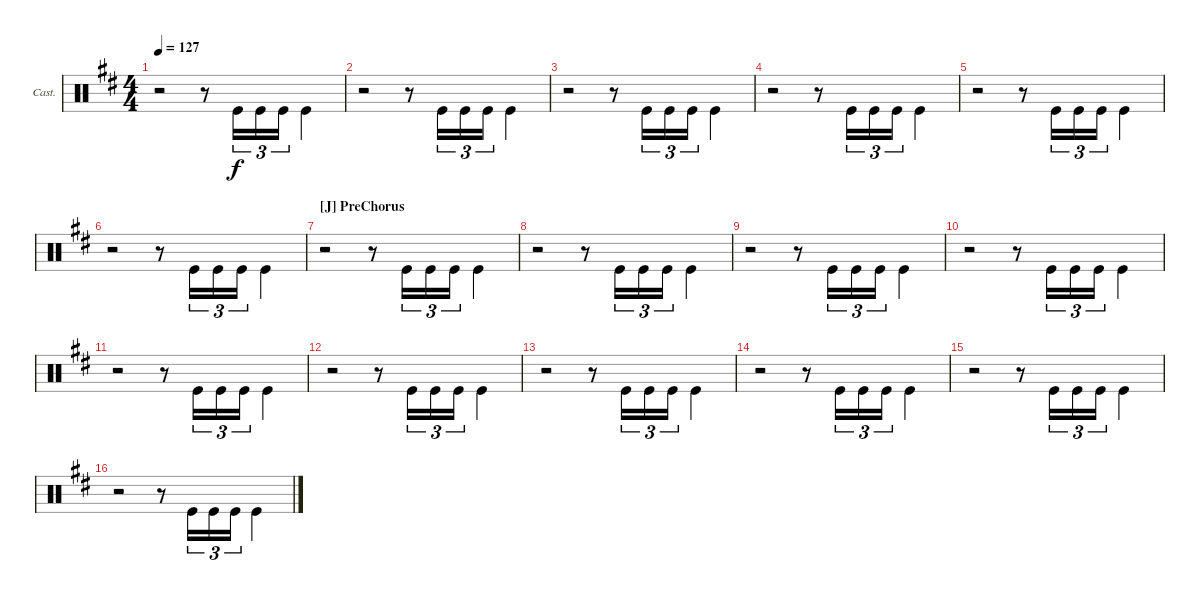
\bracketExtendMode groupsimilarinstruments
\firstSystemTrackNameOrientation horizontal
\otherSystemsTrackNameOrientation horizontal
\track ("Castanets" "Cast.") {instrument percussion}
\staff {score}
\articulation defaults
\ts (4 4)
\tempo 127
\clef neutral
\scale
0.5
\ks d
r.2{dy f beam invert} r.8{beam invert} "Kick (hit)".16{tu (3 2) beam invert} "Kick (hit)".16{tu (3 2)} "Kick (hit)".16{tu (3 2)} "Kick (hit)".4{beam invert} |
\scale
0.5 r.2{beam invert} r.8{beam invert} "Kick (hit)".16{tu (3 2) beam invert} "Kick (hit)".16{tu (3 2)} "Kick (hit)".16{tu (3 2)} "Kick (hit)".4{beam invert} |
\scale
0.5 r.2{beam invert} r.8{beam invert} "Kick (hit)".16{tu (3 2) beam invert} "Kick (hit)".16{tu (3 2)} "Kick (hit)".16{tu (3 2)} "Kick (hit)".4{beam invert} |
\scale
0.5 r.2{beam invert} r.8{beam invert} "Kick (hit)".16{tu (3 2) beam invert} "Kick (hit)".16{tu (3 2)} "Kick (hit)".16{tu (3 2)} "Kick (hit)".4{beam invert} |
\scale
0.5 r.2{beam invert} r.8{beam invert} "Kick (hit)".16{tu (3 2) beam invert} "Kick (hit)".16{tu (3 2)} "Kick (hit)".16{tu (3 2)} "Kick (hit)".4{beam invert} |
\scale
0.5 r.2{beam invert} r.8{beam invert} "Kick (hit)".16{tu (3 2) beam invert} "Kick (hit)".16{tu (3 2)} "Kick (hit)".16{tu (3 2)} "Kick (hit)".4{beam invert} |
\section ("J" "PreChorus")
\scale
0.5 r.2{beam invert} r.8{beam invert} "Kick (hit)".16{tu (3 2) beam invert} "Kick (hit)".16{tu (3 2)} "Kick (hit)".16{tu (3 2)} "Kick (hit)".4{beam invert} |
\scale
0.5 r.2{beam invert} r.8{beam invert} "Kick (hit)".16{tu (3 2) beam invert} "Kick (hit)".16{tu (3 2)} "Kick (hit)".16{tu (3 2)} "Kick (hit)".4{beam invert} |
\scale
0.5 r.2{beam invert} r.8{beam invert} "Kick (hit)".16{tu (3 2) beam invert} "Kick (hit)".16{tu (3 2)} "Kick (hit)".16{tu (3 2)} "Kick (hit)".4{beam invert} |
\scale
0.5 r.2{beam invert} r.8{beam invert} "Kick (hit)".16{tu (3 2) beam invert} "Kick (hit)".16{tu (3 2)} "Kick (hit)".16{tu (3 2)} "Kick (hit)".4{beam invert} |
\scale
0.5 r.2{beam invert} r.8{beam invert} "Kick (hit)".16{tu (3 2) beam invert} "Kick (hit)".16{tu (3 2)} "Kick (hit)".16{tu (3 2)} "Kick (hit)".4{beam invert} |
\scale
0.5 r.2{beam invert} r.8{beam invert} "Kick (hit)".16{tu (3 2) beam invert} "Kick (hit)".16{tu (3 2)} "Kick (hit)".16{tu (3 2)} "Kick (hit)".4{beam invert} |
\scale
0.5 r.2{beam invert} r.8{beam invert} "Kick (hit)".16{tu (3 2) beam invert} "Kick (hit)".16{tu (3 2)} "Kick (hit)".16{tu (3 2)} "Kick (hit)".4{beam invert} |
\scale
0.5 r.2{beam invert} r.8{beam invert} "Kick (hit)".16{tu (3 2) beam invert} "Kick (hit)".16{tu (3 2)} "Kick (hit)".16{tu (3 2)} "Kick (hit)".4{beam invert} |
\scale
0.5 r.2{beam invert} r.8{beam invert} "Kick (hit)".16{tu (3 2) beam invert} "Kick (hit)".16{tu (3 2)} "Kick (hit)".16{tu (3 2)} "Kick (hit)".4{beam invert} |
\scale
0.5 r.2{beam invert} r.8{beam invert} "Kick (hit)".16{tu (3 2) beam invert} "Kick (hit)".16{tu (3 2)} "Kick (hit)".16{tu (3 2)} "Kick (hit)".4{beam invert}
